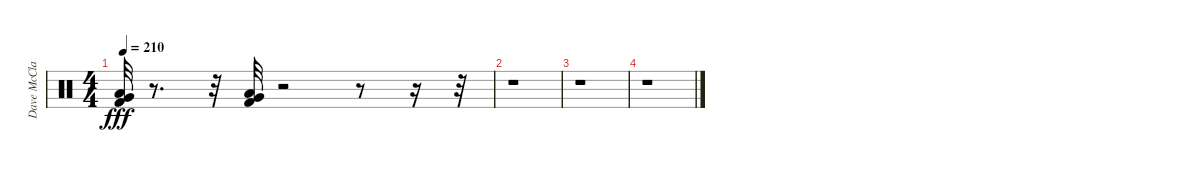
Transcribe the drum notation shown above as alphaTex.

\track ("Dave McClain" "Dave McCla") {instrument percussion}
\staff {score}
\articulation defaults
\ts (4 4)
\tempo 210
\clef neutral
\ks c
("Very Low Tom (hit)" "Low Floor Tom (hit)" "Kick (hit) 2").32{dy fff} r.8{d} r.32 ("Low Floor Tom (hit)" "Very Low Tom (hit)" "Kick (hit) 2").32 r.2 r.8 r.16 r.32 |
r.1 |
r.1 |
r.1
